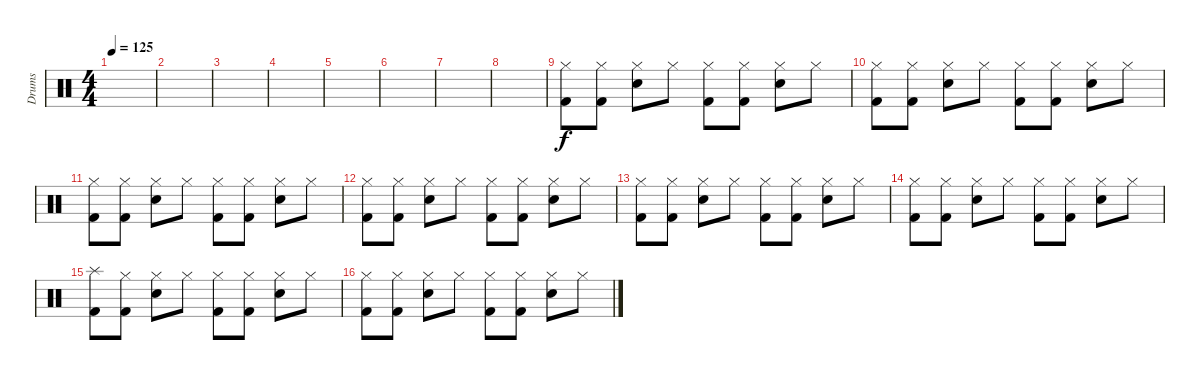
\track ("Drums" "Drums") {instrument percussion}
\staff {score}
\articulation defaults
\ts (4 4)
\tempo 125
\clef neutral
\ks c
|
|
|
|
|
|
|
|
("Hi-Hat (closed)" "Kick (hit) 2").8 ("Hi-Hat (closed)" "Kick (hit) 2").8 ("Hi-Hat (closed)" "Snare (hit) 2").8 "Hi-Hat (closed)".8 ("Hi-Hat (closed)" "Kick (hit) 2").8 ("Hi-Hat (closed)" "Kick (hit) 2").8 ("Hi-Hat (closed)" "Snare (hit) 2").8 "Hi-Hat (closed)".8 |
("Hi-Hat (closed)" "Kick (hit) 2").8 ("Hi-Hat (closed)" "Kick (hit) 2").8 ("Hi-Hat (closed)" "Snare (hit) 2").8 "Hi-Hat (closed)".8 ("Hi-Hat (closed)" "Kick (hit) 2").8 ("Hi-Hat (closed)" "Kick (hit) 2").8 ("Hi-Hat (closed)" "Snare (hit) 2").8 "Hi-Hat (closed)".8 |
("Hi-Hat (closed)" "Kick (hit) 2").8 ("Hi-Hat (closed)" "Kick (hit) 2").8 ("Hi-Hat (closed)" "Snare (hit) 2").8 "Hi-Hat (closed)".8 ("Hi-Hat (closed)" "Kick (hit) 2").8 ("Hi-Hat (closed)" "Kick (hit) 2").8 ("Hi-Hat (closed)" "Snare (hit) 2").8 "Hi-Hat (closed)".8 |
("Hi-Hat (closed)" "Kick (hit) 2").8 ("Hi-Hat (closed)" "Kick (hit) 2").8 ("Hi-Hat (closed)" "Snare (hit) 2").8 "Hi-Hat (closed)".8 ("Hi-Hat (closed)" "Kick (hit) 2").8 ("Hi-Hat (closed)" "Kick (hit) 2").8 ("Hi-Hat (closed)" "Snare (hit) 2").8 "Hi-Hat (closed)".8 |
("Hi-Hat (closed)" "Kick (hit) 2").8 ("Hi-Hat (closed)" "Kick (hit) 2").8 ("Hi-Hat (closed)" "Snare (hit) 2").8 "Hi-Hat (closed)".8 ("Hi-Hat (closed)" "Kick (hit) 2").8 ("Hi-Hat (closed)" "Kick (hit) 2").8 ("Hi-Hat (closed)" "Snare (hit) 2").8 "Hi-Hat (closed)".8 |
("Hi-Hat (closed)" "Kick (hit) 2").8 ("Hi-Hat (closed)" "Kick (hit) 2").8 ("Hi-Hat (closed)" "Snare (hit) 2").8 "Hi-Hat (closed)".8 ("Hi-Hat (closed)" "Kick (hit) 2").8 ("Hi-Hat (closed)" "Kick (hit) 2").8 ("Hi-Hat (closed)" "Snare (hit) 2").8 "Hi-Hat (closed)".8 |
("Splash (hit)" "Kick (hit) 2").8 ("Hi-Hat (closed)" "Kick (hit) 2").8 ("Hi-Hat (closed)" "Snare (hit) 2").8 "Hi-Hat (closed)".8 ("Hi-Hat (closed)" "Kick (hit) 2").8 ("Hi-Hat (closed)" "Kick (hit) 2").8 ("Hi-Hat (closed)" "Snare (hit) 2").8 "Hi-Hat (closed)".8 |
("Hi-Hat (closed)" "Kick (hit) 2").8 ("Hi-Hat (closed)" "Kick (hit) 2").8 ("Hi-Hat (closed)" "Snare (hit) 2").8 "Hi-Hat (closed)".8 ("Hi-Hat (closed)" "Kick (hit) 2").8 ("Hi-Hat (closed)" "Kick (hit) 2").8 ("Hi-Hat (closed)" "Snare (hit) 2").8 "Hi-Hat (closed)".8
